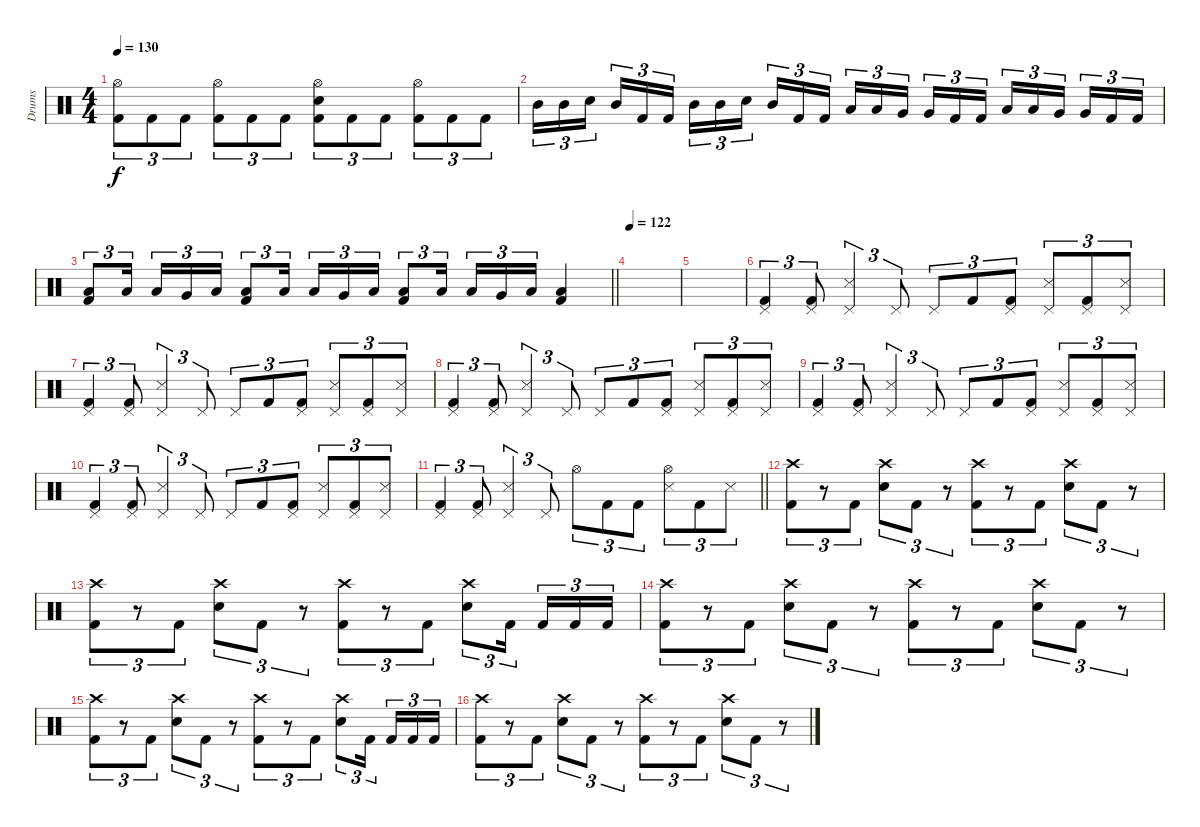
\track ("Drums" "Drums") {instrument percussion}
\staff {score}
\articulation defaults
\ts (4 4)
\tempo 130
\clef neutral
\ks c
("Hi-Hat (open)" "Kick (hit) 2").8{tu (3 2) dy f} "Kick (hit) 2".8{tu (3 2)} "Kick (hit) 2".8{tu (3 2)} ("Hi-Hat (open)" "Kick (hit) 2").8{tu (3 2)} "Kick (hit) 2".8{tu (3 2)} "Kick (hit) 2".8{tu (3 2)} ("Hi-Hat (open)" "Electric Snare (hit)" "Kick (hit) 2").8{tu (3 2)} "Kick (hit) 2".8{tu (3 2)} "Kick (hit) 2".8{tu (3 2)} ("Hi-Hat (open)" "Kick (hit) 2").8{tu (3 2)} "Kick (hit) 2".8{tu (3 2)} "Kick (hit) 2".8{tu (3 2)} |
"Mid Tom (hit)".16{tu (3 2)} "Mid Tom (hit)".16{tu (3 2)} "Electric Snare (hit)".16{tu (3 2) beam splitsecondary} "Mid Tom (hit)".16{tu (3 2)} "Kick (hit) 2".16{tu (3 2)} "Kick (hit) 2".16{tu (3 2)} "Mid Tom (hit)".16{tu (3 2)} "Mid Tom (hit)".16{tu (3 2)} "Electric Snare (hit)".16{tu (3 2) beam splitsecondary} "Mid Tom (hit)".16{tu (3 2)} "Kick (hit) 2".16{tu (3 2)} "Kick (hit) 2".16{tu (3 2)} "Low Tom (hit)".16{tu (3 2)} "Low Tom (hit)".16{tu (3 2)} "Very Low Tom (hit)".16{tu (3 2) beam splitsecondary} "Very Low Tom (hit)".16{tu (3 2)} "Kick (hit) 2".16{tu (3 2)} "Kick (hit) 2".16{tu (3 2)} "Low Tom (hit)".16{tu (3 2)} "Low Tom (hit)".16{tu (3 2)} "Very Low Tom (hit)".16{tu (3 2) beam splitsecondary} "Very Low Tom (hit)".16{tu (3 2)} "Kick (hit) 2".16{tu (3 2)} "Kick (hit) 2".16{tu (3 2)} |
\barLineRight lightlight
("Low Floor Tom (hit)" "Kick (hit) 2").8{tu (3 2)} "Low Floor Tom (hit)".16{tu (3 2) beam splitsecondary} "Low Tom (hit)".16{tu (3 2)} "Very Low Tom (hit)".16{tu (3 2)} "Low Floor Tom (hit)".16{tu (3 2)} ("Low Floor Tom (hit)" "Kick (hit) 2").8{tu (3 2)} "Low Floor Tom (hit)".16{tu (3 2) beam splitsecondary} "Low Tom (hit)".16{tu (3 2)} "Very Low Tom (hit)".16{tu (3 2)} "Low Floor Tom (hit)".16{tu (3 2)} ("Low Floor Tom (hit)" "Kick (hit) 2").8{tu (3 2)} "Low Floor Tom (hit)".16{tu (3 2) beam splitsecondary} "Low Tom (hit)".16{tu (3 2)} "Very Low Tom (hit)".16{tu (3 2)} "Low Floor Tom (hit)".16{tu (3 2)} ("Low Floor Tom (hit)" "Kick (hit) 2").4 |
\tempo 122
|
|
("Pedal Hi-Hat (hit)" "Kick (hit) 2").4{tu (3 2)} ("Pedal Hi-Hat (hit)" "Kick (hit) 2").8{tu (3 2)} ("Pedal Hi-Hat (hit)" "Snare (side stick) 3").4{tu (3 2)} "Pedal Hi-Hat (hit)".8{tu (3 2)} "Pedal Hi-Hat (hit)".8{tu (3 2)} "Kick (hit) 2".8{tu (3 2)} ("Pedal Hi-Hat (hit)" "Kick (hit) 2").8{tu (3 2)} ("Pedal Hi-Hat (hit)" "Snare (side stick) 3").8{tu (3 2)} ("Pedal Hi-Hat (hit)" "Kick (hit) 2").8{tu (3 2)} ("Pedal Hi-Hat (hit)" "Snare (side stick) 3").8{tu (3 2)} |
("Pedal Hi-Hat (hit)" "Kick (hit) 2").4{tu (3 2)} ("Pedal Hi-Hat (hit)" "Kick (hit) 2").8{tu (3 2)} ("Pedal Hi-Hat (hit)" "Snare (side stick) 3").4{tu (3 2)} "Pedal Hi-Hat (hit)".8{tu (3 2)} "Pedal Hi-Hat (hit)".8{tu (3 2)} "Kick (hit) 2".8{tu (3 2)} ("Pedal Hi-Hat (hit)" "Kick (hit) 2").8{tu (3 2)} ("Pedal Hi-Hat (hit)" "Snare (side stick) 3").8{tu (3 2)} ("Pedal Hi-Hat (hit)" "Kick (hit) 2").8{tu (3 2)} ("Pedal Hi-Hat (hit)" "Snare (side stick) 3").8{tu (3 2)} |
("Pedal Hi-Hat (hit)" "Kick (hit) 2").4{tu (3 2)} ("Pedal Hi-Hat (hit)" "Kick (hit) 2").8{tu (3 2)} ("Pedal Hi-Hat (hit)" "Snare (side stick) 3").4{tu (3 2)} "Pedal Hi-Hat (hit)".8{tu (3 2)} "Pedal Hi-Hat (hit)".8{tu (3 2)} "Kick (hit) 2".8{tu (3 2)} ("Pedal Hi-Hat (hit)" "Kick (hit) 2").8{tu (3 2)} ("Pedal Hi-Hat (hit)" "Snare (side stick) 3").8{tu (3 2)} ("Pedal Hi-Hat (hit)" "Kick (hit) 2").8{tu (3 2)} ("Pedal Hi-Hat (hit)" "Snare (side stick) 3").8{tu (3 2)} |
("Pedal Hi-Hat (hit)" "Kick (hit) 2").4{tu (3 2)} ("Pedal Hi-Hat (hit)" "Kick (hit) 2").8{tu (3 2)} ("Pedal Hi-Hat (hit)" "Snare (side stick) 3").4{tu (3 2)} "Pedal Hi-Hat (hit)".8{tu (3 2)} "Pedal Hi-Hat (hit)".8{tu (3 2)} "Kick (hit) 2".8{tu (3 2)} ("Pedal Hi-Hat (hit)" "Kick (hit) 2").8{tu (3 2)} ("Pedal Hi-Hat (hit)" "Snare (side stick) 3").8{tu (3 2)} ("Pedal Hi-Hat (hit)" "Kick (hit) 2").8{tu (3 2)} ("Pedal Hi-Hat (hit)" "Snare (side stick) 3").8{tu (3 2)} |
("Pedal Hi-Hat (hit)" "Kick (hit) 2").4{tu (3 2)} ("Pedal Hi-Hat (hit)" "Kick (hit) 2").8{tu (3 2)} ("Pedal Hi-Hat (hit)" "Snare (side stick) 3").4{tu (3 2)} "Pedal Hi-Hat (hit)".8{tu (3 2)} "Pedal Hi-Hat (hit)".8{tu (3 2)} "Kick (hit) 2".8{tu (3 2)} ("Pedal Hi-Hat (hit)" "Kick (hit) 2").8{tu (3 2)} ("Pedal Hi-Hat (hit)" "Snare (side stick) 3").8{tu (3 2)} ("Pedal Hi-Hat (hit)" "Kick (hit) 2").8{tu (3 2)} ("Pedal Hi-Hat (hit)" "Snare (side stick) 3").8{tu (3 2)} |
\barLineRight lightlight
("Pedal Hi-Hat (hit)" "Kick (hit) 2").4{tu (3 2)} ("Pedal Hi-Hat (hit)" "Kick (hit) 2").8{tu (3 2)} ("Pedal Hi-Hat (hit)" "Snare (side stick) 3").4{tu (3 2)} "Pedal Hi-Hat (hit)".8{tu (3 2)} "Hi-Hat (open)".8{tu (3 2)} "Kick (hit) 2".8{tu (3 2)} "Kick (hit) 2".8{tu (3 2)} ("Hi-Hat (open)" "Snare (side stick) 3").8{tu (3 2)} "Kick (hit) 2".8{tu (3 2)} "Snare (side stick) 3".8{tu (3 2)} |
("Crash high (hit)" "Kick (hit) 2").8{tu (3 2)} r.8{tu (3 2)} "Kick (hit) 2".8{tu (3 2)} ("Crash high (hit)" "Electric Snare (hit)").8{tu (3 2)} "Kick (hit) 2".8{tu (3 2)} r.8{tu (3 2)} ("Crash high (hit)" "Kick (hit) 2").8{tu (3 2)} r.8{tu (3 2)} "Kick (hit) 2".8{tu (3 2)} ("Crash high (hit)" "Electric Snare (hit)").8{tu (3 2)} "Kick (hit) 2".8{tu (3 2)} r.8{tu (3 2)} |
("Crash high (hit)" "Kick (hit) 2").8{tu (3 2)} r.8{tu (3 2)} "Kick (hit) 2".8{tu (3 2)} ("Crash high (hit)" "Electric Snare (hit)").8{tu (3 2)} "Kick (hit) 2".8{tu (3 2)} r.8{tu (3 2)} ("Crash high (hit)" "Kick (hit) 2").8{tu (3 2)} r.8{tu (3 2)} "Kick (hit) 2".8{tu (3 2)} ("Crash high (hit)" "Electric Snare (hit)").8{tu (3 2)} "Kick (hit) 2".16{tu (3 2) beam splitsecondary} "Kick (hit) 2".16{tu (3 2)} "Kick (hit) 2".16{tu (3 2)} "Kick (hit) 2".16{tu (3 2)} |
("Crash high (hit)" "Kick (hit) 2").8{tu (3 2)} r.8{tu (3 2)} "Kick (hit) 2".8{tu (3 2)} ("Crash high (hit)" "Electric Snare (hit)").8{tu (3 2)} "Kick (hit) 2".8{tu (3 2)} r.8{tu (3 2)} ("Crash high (hit)" "Kick (hit) 2").8{tu (3 2)} r.8{tu (3 2)} "Kick (hit) 2".8{tu (3 2)} ("Crash high (hit)" "Electric Snare (hit)").8{tu (3 2)} "Kick (hit) 2".8{tu (3 2)} r.8{tu (3 2)} |
("Crash high (hit)" "Kick (hit) 2").8{tu (3 2)} r.8{tu (3 2)} "Kick (hit) 2".8{tu (3 2)} ("Crash high (hit)" "Electric Snare (hit)").8{tu (3 2)} "Kick (hit) 2".8{tu (3 2)} r.8{tu (3 2)} ("Crash high (hit)" "Kick (hit) 2").8{tu (3 2)} r.8{tu (3 2)} "Kick (hit) 2".8{tu (3 2)} ("Crash high (hit)" "Electric Snare (hit)").8{tu (3 2)} "Kick (hit) 2".16{tu (3 2) beam splitsecondary} "Kick (hit) 2".16{tu (3 2)} "Kick (hit) 2".16{tu (3 2)} "Kick (hit) 2".16{tu (3 2)} |
("Crash high (hit)" "Kick (hit) 2").8{tu (3 2)} r.8{tu (3 2)} "Kick (hit) 2".8{tu (3 2)} ("Crash high (hit)" "Electric Snare (hit)").8{tu (3 2)} "Kick (hit) 2".8{tu (3 2)} r.8{tu (3 2)} ("Crash high (hit)" "Kick (hit) 2").8{tu (3 2)} r.8{tu (3 2)} "Kick (hit) 2".8{tu (3 2)} ("Crash high (hit)" "Electric Snare (hit)").8{tu (3 2)} "Kick (hit) 2".8{tu (3 2)} r.8{tu (3 2)}
